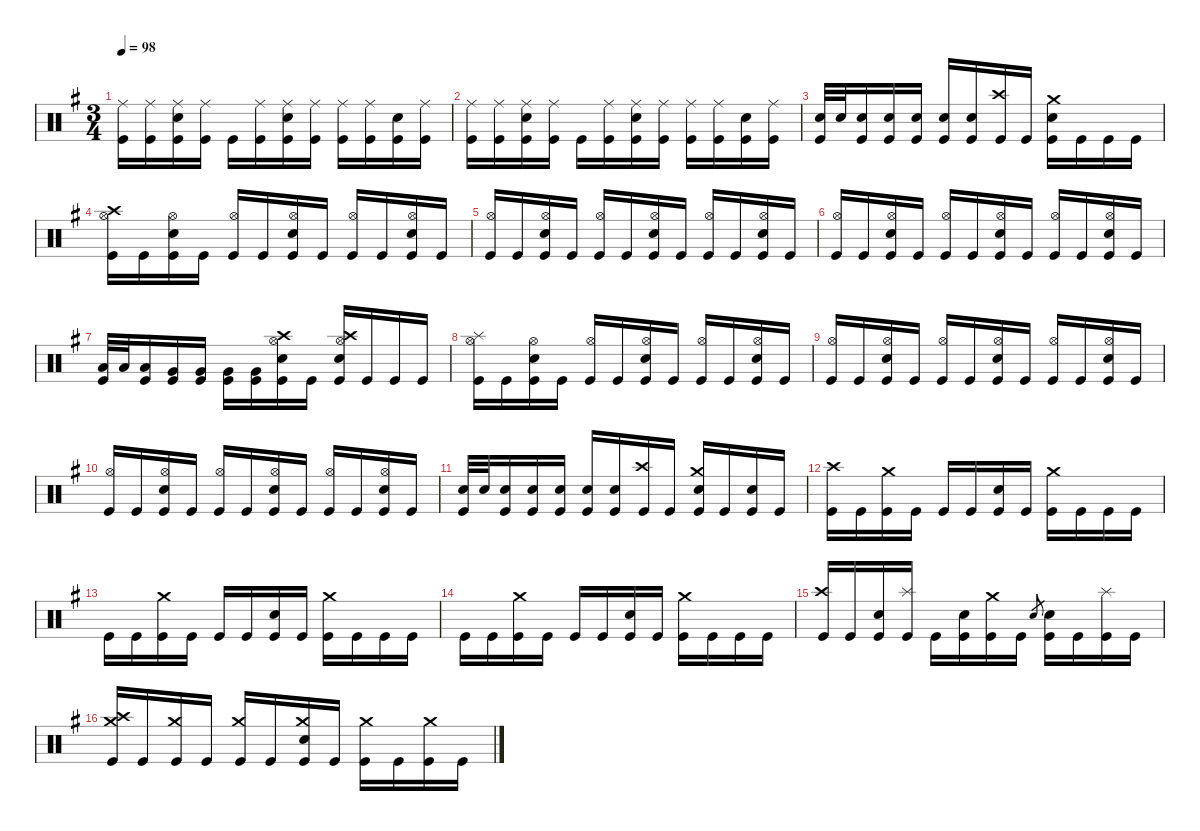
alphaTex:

\defaultSystemsLayout 4
\hideDynamics
\bracketExtendMode nobrackets
\singleTrackTrackNamePolicy hidden
\multiTrackTrackNamePolicy hidden
\firstSystemTrackNameMode fullname
\otherSystemsTrackNameOrientation horizontal
\track ("Drums" "drm.") {instrument percussion}
\staff {score}
\articulation defaults
\ts (3 4)
\tempo 98
\clef neutral
\ks eminor
("Ride (middle)"{acc forcenatural} "Kick (hit)"{acc forcenatural}).16{dy f beam Down} ("Ride (middle)"{acc forcenatural} "Kick (hit)"{acc forcenatural}).16{beam Down} ("Ride (middle)"{acc forcenatural} "Snare (hit) 2"{acc forcenatural} "Kick (hit)"{acc forcenatural}).16{beam Down} ("Ride (middle)"{acc forcenatural} "Kick (hit)"{acc forcenatural}).16{beam Down} "Kick (hit)"{acc forcenatural}.16{beam Down} ("Ride (middle)"{acc forcenatural} "Kick (hit)"{acc forcenatural}).16{beam Down} ("Ride (middle)"{acc forcenatural} "Snare (hit) 2"{acc forcenatural} "Kick (hit)"{acc forcenatural}).16{beam Down} ("Ride (middle)"{acc forcenatural} "Kick (hit)"{acc forcenatural}).16{beam Down} ("Ride (middle)"{acc forcenatural} "Kick (hit)"{acc forcenatural}).16{beam Down} ("Ride (middle)"{acc forcenatural} "Kick (hit)"{acc forcenatural}).16{beam Down} ("Snare (hit) 2"{acc forcenatural} "Kick (hit)"{acc forcenatural}).16{beam Down} ("Ride (middle)"{acc forcenatural} "Kick (hit)"{acc forcenatural}).16{beam Down} |
("Ride (middle)"{acc forcenatural} "Kick (hit)"{acc forcenatural}).16{beam Down} ("Ride (middle)"{acc forcenatural} "Kick (hit)"{acc forcenatural}).16{beam Down} ("Ride (middle)"{acc forcenatural} "Snare (hit) 2"{acc forcenatural} "Kick (hit)"{acc forcenatural}).16{beam Down} ("Ride (middle)"{acc forcenatural} "Kick (hit)"{acc forcenatural}).16{beam Down} "Kick (hit)"{acc forcenatural}.16{beam Down} ("Ride (middle)"{acc forcenatural} "Kick (hit)"{acc forcenatural}).16{beam Down} ("Ride (middle)"{acc forcenatural} "Snare (hit) 2"{acc forcenatural} "Kick (hit)"{acc forcenatural}).16{beam Down} ("Ride (middle)"{acc forcenatural} "Kick (hit)"{acc forcenatural}).16{beam Down} ("Ride (middle)"{acc forcenatural} "Kick (hit)"{acc forcenatural}).16{beam Down} ("Ride (middle)"{acc forcenatural} "Kick (hit)"{acc forcenatural}).16{beam Down} ("Snare (hit) 2"{acc forcenatural} "Kick (hit)"{acc forcenatural}).16{beam Down} ("Ride (middle)"{acc forcenatural} "Kick (hit)"{acc forcenatural}).16{beam Down} |
("Snare (hit) 2"{acc forcenatural} "Kick (hit)"{acc forcenatural}).32{beam Up} "Snare (hit) 2"{acc forcenatural}.32{beam Up} ("Snare (hit) 2"{acc forcenatural} "Kick (hit)"{acc forcenatural}).16{beam Up} ("Snare (hit) 2"{acc forcenatural} "Kick (hit)"{acc forcenatural}).16{beam Up} ("Snare (hit) 2"{acc forcenatural} "Kick (hit)"{acc forcenatural}).16{beam Up} ("Snare (hit) 2"{acc forcenatural} "Kick (hit)"{acc forcenatural}).16{beam Up} ("Snare (hit) 2"{acc forcenatural} "Kick (hit)"{acc forcenatural}).16{beam Up} ("Crash high (hit)"{acc forcenatural} "Kick (hit)"{acc forcenatural}).16{beam Up} "Kick (hit)"{acc forcenatural}.16{beam Up} ("Crash medium (hit)"{acc forcenatural} "Snare (hit) 2"{acc forcenatural} "Kick (hit)"{acc forcenatural}).16{beam Down} "Kick (hit)"{acc forcenatural}.16{beam Down} "Kick (hit)"{acc forcenatural}.16{beam Down} "Kick (hit)"{acc forcenatural}.16{beam Down} |
("Crash high (hit)"{acc forcenatural} "Hi-Hat (open)"{acc forcenatural} "Kick (hit)"{acc forcenatural}).16{beam Down} "Kick (hit)"{acc forcenatural}.16{beam Down} ("Hi-Hat (open)"{acc forcenatural} "Snare (hit) 2"{acc forcenatural} "Kick (hit)"{acc forcenatural}).16{beam Down} "Kick (hit)"{acc forcenatural}.16{beam Down} ("Hi-Hat (open)"{acc forcenatural} "Kick (hit)"{acc forcenatural}).16{beam Up} "Kick (hit)"{acc forcenatural}.16{beam Up} ("Hi-Hat (open)"{acc forcenatural} "Snare (hit) 2"{acc forcenatural} "Kick (hit)"{acc forcenatural}).16{beam Up} "Kick (hit)"{acc forcenatural}.16{beam Up} ("Hi-Hat (open)"{acc forcenatural} "Kick (hit)"{acc forcenatural}).16{beam Up} "Kick (hit)"{acc forcenatural}.16{beam Up} ("Hi-Hat (open)"{acc forcenatural} "Snare (hit) 2"{acc forcenatural} "Kick (hit)"{acc forcenatural}).16{beam Up} "Kick (hit)"{acc forcenatural}.16{beam Up} |
("Hi-Hat (open)"{acc forcenatural} "Kick (hit)"{acc forcenatural}).16{beam Up} "Kick (hit)"{acc forcenatural}.16{beam Up} ("Hi-Hat (open)"{acc forcenatural} "Snare (hit) 2"{acc forcenatural} "Kick (hit)"{acc forcenatural}).16{beam Up} "Kick (hit)"{acc forcenatural}.16{beam Up} ("Hi-Hat (open)"{acc forcenatural} "Kick (hit)"{acc forcenatural}).16{beam Up} "Kick (hit)"{acc forcenatural}.16{beam Up} ("Hi-Hat (open)"{acc forcenatural} "Snare (hit) 2"{acc forcenatural} "Kick (hit)"{acc forcenatural}).16{beam Up} "Kick (hit)"{acc forcenatural}.16{beam Up} ("Hi-Hat (open)"{acc forcenatural} "Kick (hit)"{acc forcenatural}).16{beam Up} "Kick (hit)"{acc forcenatural}.16{beam Up} ("Hi-Hat (open)"{acc forcenatural} "Snare (hit) 2"{acc forcenatural} "Kick (hit)"{acc forcenatural}).16{beam Up} "Kick (hit)"{acc forcenatural}.16{beam Up} |
("Hi-Hat (open)"{acc forcenatural} "Kick (hit)"{acc forcenatural}).16{beam Up} "Kick (hit)"{acc forcenatural}.16{beam Up} ("Hi-Hat (open)"{acc forcenatural} "Snare (hit) 2"{acc forcenatural} "Kick (hit)"{acc forcenatural}).16{beam Up} "Kick (hit)"{acc forcenatural}.16{beam Up} ("Hi-Hat (open)"{acc forcenatural} "Kick (hit)"{acc forcenatural}).16{beam Up} "Kick (hit)"{acc forcenatural}.16{beam Up} ("Hi-Hat (open)"{acc forcenatural} "Snare (hit) 2"{acc forcenatural} "Kick (hit)"{acc forcenatural}).16{beam Up} "Kick (hit)"{acc forcenatural}.16{beam Up} ("Hi-Hat (open)"{acc forcenatural} "Kick (hit)"{acc forcenatural}).16{beam Up} "Kick (hit)"{acc forcenatural}.16{beam Up} ("Hi-Hat (open)"{acc forcenatural} "Snare (hit) 2"{acc forcenatural} "Kick (hit)"{acc forcenatural}).16{beam Up} "Kick (hit)"{acc forcenatural}.16{beam Up} |
("Low Tom (hit)"{acc forcenatural} "Kick (hit)"{acc forcenatural}).32{beam Up} "Low Tom (hit)"{acc forcenatural}.32{beam Up} ("Low Tom (hit)"{acc forcenatural} "Kick (hit)"{acc forcenatural}).16{beam Up} ("Very Low Tom (hit)"{acc forcenatural} "Kick (hit)"{acc forcenatural}).16{beam Up} ("Very Low Tom (hit)"{acc forcenatural} "Kick (hit)"{acc forcenatural}).16{beam Up} ("Very Low Tom (hit)"{acc forcenatural} "Kick (hit)"{acc forcenatural}).16{beam Down} ("Very Low Tom (hit)"{acc forcenatural} "Kick (hit)"{acc forcenatural}).16{beam Down} ("Crash high (hit)"{acc forcenatural} "Hi-Hat (open)"{acc forcenatural} "Snare (hit) 2"{acc forcenatural} "Kick (hit)"{acc forcenatural}).16{beam Down} "Kick (hit)"{acc forcenatural}.16{beam Down} ("Crash high (hit)"{acc forcenatural} "Hi-Hat (open)"{acc forcenatural} "Snare (hit) 2"{acc forcenatural} "Kick (hit)"{acc forcenatural}).16{beam Up} "Kick (hit)"{acc forcenatural}.16{beam Up} "Kick (hit)"{acc forcenatural}.16{beam Up} "Kick (hit)"{acc forcenatural}.16{beam Up} |
("Splash (hit)"{acc forcenatural} "Hi-Hat (open)"{acc forcenatural} "Kick (hit)"{acc forcenatural}).16{beam Down} "Kick (hit)"{acc forcenatural}.16{beam Down} ("Hi-Hat (open)"{acc forcenatural} "Snare (hit) 2"{acc forcenatural} "Kick (hit)"{acc forcenatural}).16{beam Down} "Kick (hit)"{acc forcenatural}.16{beam Down} ("Hi-Hat (open)"{acc forcenatural} "Kick (hit)"{acc forcenatural}).16{beam Up} "Kick (hit)"{acc forcenatural}.16{beam Up} ("Hi-Hat (open)"{acc forcenatural} "Snare (hit) 2"{acc forcenatural} "Kick (hit)"{acc forcenatural}).16{beam Up} "Kick (hit)"{acc forcenatural}.16{beam Up} ("Hi-Hat (open)"{acc forcenatural} "Kick (hit)"{acc forcenatural}).16{beam Up} "Kick (hit)"{acc forcenatural}.16{beam Up} ("Hi-Hat (open)"{acc forcenatural} "Snare (hit) 2"{acc forcenatural} "Kick (hit)"{acc forcenatural}).16{beam Up} "Kick (hit)"{acc forcenatural}.16{beam Up} |
("Hi-Hat (open)"{acc forcenatural} "Kick (hit)"{acc forcenatural}).16{beam Up} "Kick (hit)"{acc forcenatural}.16{beam Up} ("Hi-Hat (open)"{acc forcenatural} "Snare (hit) 2"{acc forcenatural} "Kick (hit)"{acc forcenatural}).16{beam Up} "Kick (hit)"{acc forcenatural}.16{beam Up} ("Hi-Hat (open)"{acc forcenatural} "Kick (hit)"{acc forcenatural}).16{beam Up} "Kick (hit)"{acc forcenatural}.16{beam Up} ("Hi-Hat (open)"{acc forcenatural} "Snare (hit) 2"{acc forcenatural} "Kick (hit)"{acc forcenatural}).16{beam Up} "Kick (hit)"{acc forcenatural}.16{beam Up} ("Hi-Hat (open)"{acc forcenatural} "Kick (hit)"{acc forcenatural}).16{beam Up} "Kick (hit)"{acc forcenatural}.16{beam Up} ("Hi-Hat (open)"{acc forcenatural} "Snare (hit) 2"{acc forcenatural} "Kick (hit)"{acc forcenatural}).16{beam Up} "Kick (hit)"{acc forcenatural}.16{beam Up} |
("Hi-Hat (open)"{acc forcenatural} "Kick (hit)"{acc forcenatural}).16{beam Up} "Kick (hit)"{acc forcenatural}.16{beam Up} ("Hi-Hat (open)"{acc forcenatural} "Snare (hit) 2"{acc forcenatural} "Kick (hit)"{acc forcenatural}).16{beam Up} "Kick (hit)"{acc forcenatural}.16{beam Up} ("Hi-Hat (open)"{acc forcenatural} "Kick (hit)"{acc forcenatural}).16{beam Up} "Kick (hit)"{acc forcenatural}.16{beam Up} ("Hi-Hat (open)"{acc forcenatural} "Snare (hit) 2"{acc forcenatural} "Kick (hit)"{acc forcenatural}).16{beam Up} "Kick (hit)"{acc forcenatural}.16{beam Up} ("Hi-Hat (open)"{acc forcenatural} "Kick (hit)"{acc forcenatural}).16{beam Up} "Kick (hit)"{acc forcenatural}.16{beam Up} ("Hi-Hat (open)"{acc forcenatural} "Snare (hit) 2"{acc forcenatural} "Kick (hit)"{acc forcenatural}).16{beam Up} "Kick (hit)"{acc forcenatural}.16{beam Up} |
("Snare (hit) 2"{acc forcenatural} "Kick (hit)"{acc forcenatural}).32{beam Up} "Snare (hit) 2"{acc forcenatural}.32{beam Up} ("Snare (hit) 2"{acc forcenatural} "Kick (hit)"{acc forcenatural}).16{beam Up} ("Snare (hit) 2"{acc forcenatural} "Kick (hit)"{acc forcenatural}).16{beam Up} ("Snare (hit) 2"{acc forcenatural} "Kick (hit)"{acc forcenatural}).16{beam Up} ("Snare (hit) 2"{acc forcenatural} "Kick (hit)"{acc forcenatural}).16{beam Up} ("Snare (hit) 2"{acc forcenatural} "Kick (hit)"{acc forcenatural}).16{beam Up} ("Crash high (hit)"{acc forcenatural} "Kick (hit)"{acc forcenatural}).16{beam Up} "Kick (hit)"{acc forcenatural}.16{beam Up} ("Crash medium (hit)"{acc forcenatural} "Snare (hit) 2"{acc forcenatural} "Kick (hit)"{acc forcenatural}).16{beam Up} "Kick (hit)"{acc forcenatural}.16{beam Up} ("Snare (hit) 2"{acc forcenatural} "Kick (hit)"{acc forcenatural}).16{beam Up} "Kick (hit)"{acc forcenatural}.16{beam Up} |
("Crash high (hit)"{acc forcenatural} "Kick (hit)"{acc forcenatural}).16{beam Down} "Kick (hit)"{acc forcenatural}.16{beam Down} ("Crash medium (hit)"{acc forcenatural} "Kick (hit)"{acc forcenatural}).16{dy mf beam Down} "Kick (hit)"{acc forcenatural}.16{dy f beam Down} "Kick (hit)"{acc forcenatural}.16{beam Up} "Kick (hit)"{acc forcenatural}.16{beam Up} ("Snare (hit) 2"{acc forcenatural} "Kick (hit)"{acc forcenatural}).16{beam Up} "Kick (hit)"{acc forcenatural}.16{beam Up} ("Crash medium (hit)"{acc forcenatural} "Kick (hit)"{acc forcenatural}).16{dy mf beam Down} "Kick (hit)"{acc forcenatural}.16{dy f beam Down} "Kick (hit)"{acc forcenatural}.16{beam Down} "Kick (hit)"{acc forcenatural}.16{beam Down} |
"Kick (hit)"{acc forcenatural}.16{beam Down} "Kick (hit)"{acc forcenatural}.16{beam Down} ("Crash medium (hit)"{acc forcenatural} "Kick (hit)"{acc forcenatural}).16{dy mf beam Down} "Kick (hit)"{acc forcenatural}.16{dy f beam Down} "Kick (hit)"{acc forcenatural}.16{beam Up} "Kick (hit)"{acc forcenatural}.16{beam Up} ("Snare (hit) 2"{acc forcenatural} "Kick (hit)"{acc forcenatural}).16{beam Up} "Kick (hit)"{acc forcenatural}.16{beam Up} ("Crash medium (hit)"{acc forcenatural} "Kick (hit)"{acc forcenatural}).16{dy mf beam Down} "Kick (hit)"{acc forcenatural}.16{dy f beam Down} "Kick (hit)"{acc forcenatural}.16{beam Down} "Kick (hit)"{acc forcenatural}.16{beam Down} |
"Kick (hit)"{acc forcenatural}.16{beam Down} "Kick (hit)"{acc forcenatural}.16{beam Down} ("Crash medium (hit)"{acc forcenatural} "Kick (hit)"{acc forcenatural}).16{dy mf beam Down} "Kick (hit)"{acc forcenatural}.16{dy f beam Down} "Kick (hit)"{acc forcenatural}.16{beam Up} "Kick (hit)"{acc forcenatural}.16{beam Up} ("Snare (hit) 2"{acc forcenatural} "Kick (hit)"{acc forcenatural}).16{beam Up} "Kick (hit)"{acc forcenatural}.16{beam Up} ("Crash medium (hit)"{acc forcenatural} "Kick (hit)"{acc forcenatural}).16{dy mf beam Down} "Kick (hit)"{acc forcenatural}.16{dy f beam Down} "Kick (hit)"{acc forcenatural}.16{beam Down} "Kick (hit)"{acc forcenatural}.16{beam Down} |
("Crash high (hit)"{acc forcenatural} "Kick (hit)"{acc forcenatural}).16{beam Up} "Kick (hit)"{acc forcenatural}.16{beam Up} ("Snare (hit) 2"{acc forcenatural} "Kick (hit)"{acc forcenatural}).16{beam Up} ("Splash (hit)"{acc forcenatural} "Kick (hit)"{acc forcenatural}).16{beam Up} "Kick (hit)"{acc forcenatural}.16{beam Down} ("Snare (hit) 2"{acc forcenatural} "Kick (hit)"{acc forcenatural}).16{beam Down} ("Crash medium (hit)"{acc forcenatural} "Kick (hit)"{acc forcenatural}).16{beam Down} "Kick (hit)"{acc forcenatural}.16{beam Down} "Electric Snare (hit)"{acc forcenatural}.8{gr dy mf beam Up} ("Snare (hit) 2"{acc forcenatural} "Kick (hit)"{acc forcenatural}).16{dy f beam Down} "Kick (hit)"{acc forcenatural}.16{beam Down} ("Splash (hit)"{acc forcenatural} "Kick (hit)"{acc forcenatural}).16{beam Down} "Kick (hit)"{acc forcenatural}.16{beam Down} |
("Crash high (hit)"{acc forcenatural} "Crash medium (hit)"{acc forcenatural} "Kick (hit)"{acc forcenatural}).16{beam Up} "Kick (hit)"{acc forcenatural}.16{beam Up} ("Crash medium (hit)"{acc forcenatural} "Kick (hit)"{acc forcenatural}).16{dy mf beam Up} "Kick (hit)"{acc forcenatural}.16{dy f beam Up} ("Crash medium (hit)"{acc forcenatural} "Kick (hit)"{acc forcenatural}).16{dy mf beam Up} "Kick (hit)"{acc forcenatural}.16{dy f beam Up} ("Crash medium (hit)"{acc forcenatural} "Snare (hit) 2"{acc forcenatural} "Kick (hit)"{acc forcenatural}).16{dy mf beam Up} "Kick (hit)"{acc forcenatural}.16{dy f beam Up} ("Crash medium (hit)"{acc forcenatural} "Kick (hit)"{acc forcenatural}).16{dy mf beam Down} "Kick (hit)"{acc forcenatural}.16{dy f beam Down} ("Crash medium (hit)"{acc forcenatural} "Kick (hit)"{acc forcenatural}).16{dy mf beam Down} "Kick (hit)"{acc forcenatural}.16{dy f beam Down}
